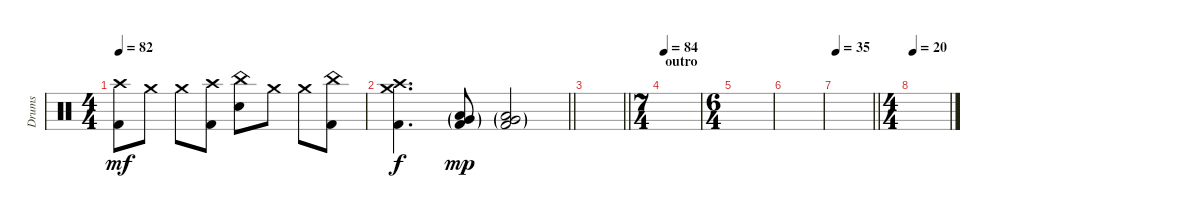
\track ("Drums" "Drums") {instrument percussion}
\staff {score}
\articulation defaults
\ts (4 4)
\tempo 82
\clef neutral
\ks c
("Crash high (hit)" "Kick (hit) 2").8{dy mf} "Crash medium (hit)".8 "Crash medium (hit)".8 ("Crash high (hit)" "Kick (hit) 2").8 ("China (hit)" "Electric Snare (hit)").8 "Crash medium (hit)".8 "Crash medium (hit)".8 ("China (hit)" "Kick (hit) 2").8 |
\barLineRight lightlight
("Crash high (hit)" "Crash medium (hit)" "Kick (hit) 2").4{d dy f} ("Low Floor Tom (hit)"{g} "Very Low Tom (hit)"{g} "Kick (hit) 2"{g}).8{dy mp} ("Low Floor Tom (hit)"{g} "Very Low Tom (hit)"{g} "Kick (hit) 2"{g}).2 |
\barLineRight lightlight
|
\ts (7 4)
\section ("" "outro")
\tempo 84
|
\ts (6 4)
|
|
\tempo 35
\barLineRight lightlight
|
\ts (4 4)
\tempo 20
